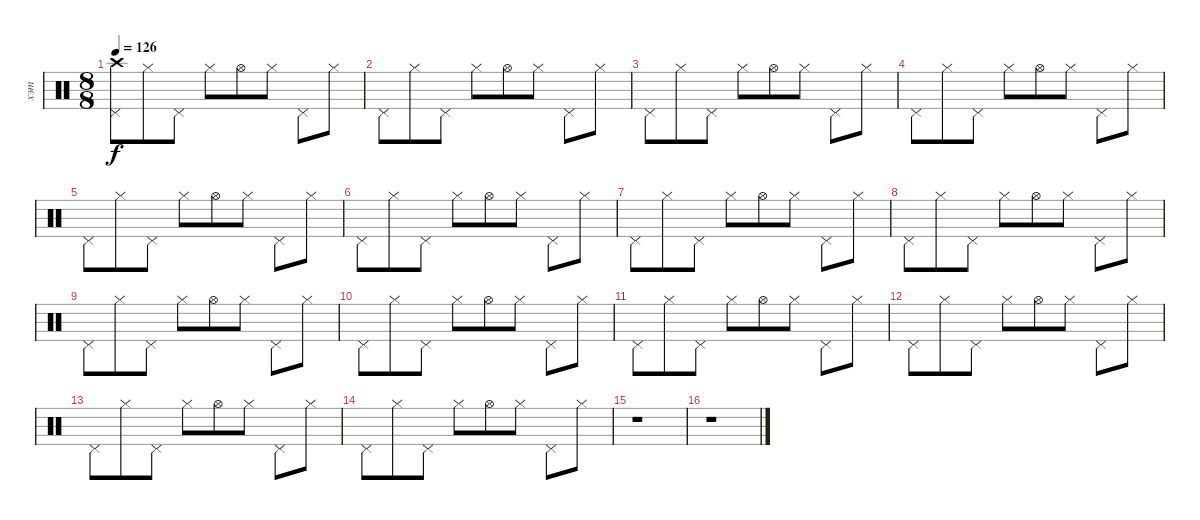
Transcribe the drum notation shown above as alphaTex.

\track ("хэт" "хэт") {instrument percussion}
\staff {score}
\articulation defaults
\ts (8 8)
\tempo 126
\clef neutral
\ks c
("Pedal Hi-Hat (hit)" "Crash high (hit)").8{dy f} "Hi-Hat (closed)".8 "Pedal Hi-Hat (hit)".8 "Hi-Hat (closed)".8 "Hi-Hat (open)".8 "Hi-Hat (closed)".8 "Pedal Hi-Hat (hit)".8 "Hi-Hat (closed)".8 |
"Pedal Hi-Hat (hit)".8 "Hi-Hat (closed)".8 "Pedal Hi-Hat (hit)".8 "Hi-Hat (closed)".8 "Hi-Hat (open)".8 "Hi-Hat (closed)".8 "Pedal Hi-Hat (hit)".8 "Hi-Hat (closed)".8 |
"Pedal Hi-Hat (hit)".8 "Hi-Hat (closed)".8 "Pedal Hi-Hat (hit)".8 "Hi-Hat (closed)".8 "Hi-Hat (open)".8 "Hi-Hat (closed)".8 "Pedal Hi-Hat (hit)".8 "Hi-Hat (closed)".8 |
"Pedal Hi-Hat (hit)".8 "Hi-Hat (closed)".8 "Pedal Hi-Hat (hit)".8 "Hi-Hat (closed)".8 "Hi-Hat (open)".8 "Hi-Hat (closed)".8 "Pedal Hi-Hat (hit)".8 "Hi-Hat (closed)".8 |
"Pedal Hi-Hat (hit)".8 "Hi-Hat (closed)".8 "Pedal Hi-Hat (hit)".8 "Hi-Hat (closed)".8 "Hi-Hat (open)".8 "Hi-Hat (closed)".8 "Pedal Hi-Hat (hit)".8 "Hi-Hat (closed)".8 |
"Pedal Hi-Hat (hit)".8 "Hi-Hat (closed)".8 "Pedal Hi-Hat (hit)".8 "Hi-Hat (closed)".8 "Hi-Hat (open)".8 "Hi-Hat (closed)".8 "Pedal Hi-Hat (hit)".8 "Hi-Hat (closed)".8 |
"Pedal Hi-Hat (hit)".8 "Hi-Hat (closed)".8 "Pedal Hi-Hat (hit)".8 "Hi-Hat (closed)".8 "Hi-Hat (open)".8 "Hi-Hat (closed)".8 "Pedal Hi-Hat (hit)".8 "Hi-Hat (closed)".8 |
"Pedal Hi-Hat (hit)".8 "Hi-Hat (closed)".8 "Pedal Hi-Hat (hit)".8 "Hi-Hat (closed)".8 "Hi-Hat (open)".8 "Hi-Hat (closed)".8 "Pedal Hi-Hat (hit)".8 "Hi-Hat (closed)".8 |
"Pedal Hi-Hat (hit)".8 "Hi-Hat (closed)".8 "Pedal Hi-Hat (hit)".8 "Hi-Hat (closed)".8 "Hi-Hat (open)".8 "Hi-Hat (closed)".8 "Pedal Hi-Hat (hit)".8 "Hi-Hat (closed)".8 |
"Pedal Hi-Hat (hit)".8 "Hi-Hat (closed)".8 "Pedal Hi-Hat (hit)".8 "Hi-Hat (closed)".8 "Hi-Hat (open)".8 "Hi-Hat (closed)".8 "Pedal Hi-Hat (hit)".8 "Hi-Hat (closed)".8 |
"Pedal Hi-Hat (hit)".8 "Hi-Hat (closed)".8 "Pedal Hi-Hat (hit)".8 "Hi-Hat (closed)".8 "Hi-Hat (open)".8 "Hi-Hat (closed)".8 "Pedal Hi-Hat (hit)".8 "Hi-Hat (closed)".8 |
"Pedal Hi-Hat (hit)".8 "Hi-Hat (closed)".8 "Pedal Hi-Hat (hit)".8 "Hi-Hat (closed)".8 "Hi-Hat (open)".8 "Hi-Hat (closed)".8 "Pedal Hi-Hat (hit)".8 "Hi-Hat (closed)".8 |
"Pedal Hi-Hat (hit)".8 "Hi-Hat (closed)".8 "Pedal Hi-Hat (hit)".8 "Hi-Hat (closed)".8 "Hi-Hat (open)".8 "Hi-Hat (closed)".8 "Pedal Hi-Hat (hit)".8 "Hi-Hat (closed)".8 |
"Pedal Hi-Hat (hit)".8 "Hi-Hat (closed)".8 "Pedal Hi-Hat (hit)".8 "Hi-Hat (closed)".8 "Hi-Hat (open)".8 "Hi-Hat (closed)".8 "Pedal Hi-Hat (hit)".8 "Hi-Hat (closed)".8 |
r.1 |
r.1
